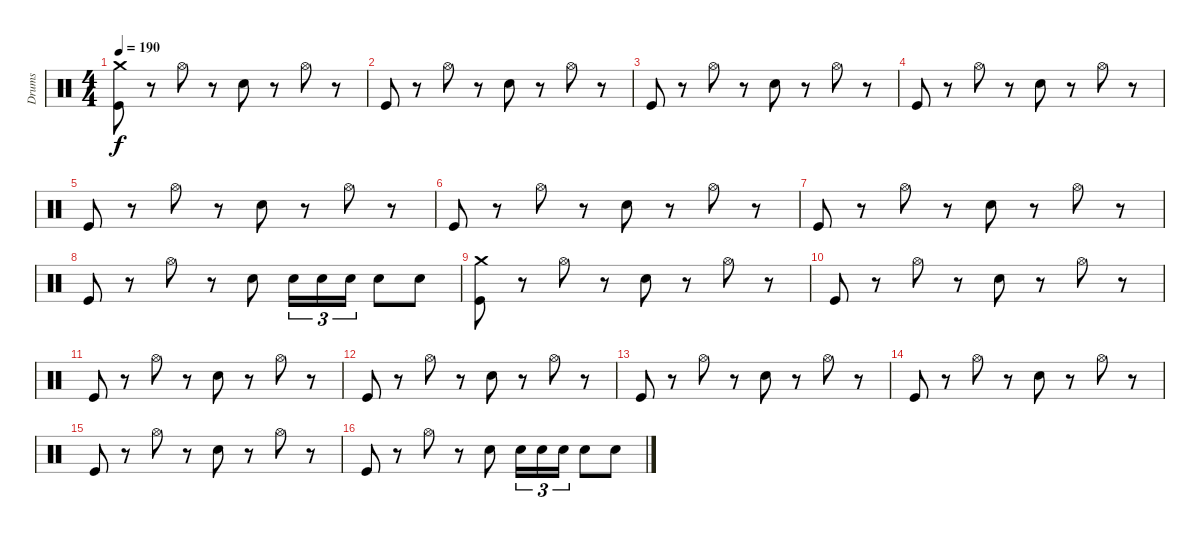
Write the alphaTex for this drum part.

\track ("Drums" "Drums") {instrument percussion}
\staff {score}
\articulation defaults
\ts (4 4)
\tempo 190
\clef neutral
\ks c
("Crash medium (hit)" "Kick (hit)").8{dy f} r.8 "Hi-Hat (open)".8 r.8 "Electric Snare (hit)".8 r.8 "Hi-Hat (open)".8 r.8 |
"Kick (hit)".8 r.8 "Hi-Hat (open)".8 r.8 "Electric Snare (hit)".8 r.8 "Hi-Hat (open)".8 r.8 |
"Kick (hit)".8 r.8 "Hi-Hat (open)".8 r.8 "Electric Snare (hit)".8 r.8 "Hi-Hat (open)".8 r.8 |
"Kick (hit)".8 r.8 "Hi-Hat (open)".8 r.8 "Electric Snare (hit)".8 r.8 "Hi-Hat (open)".8 r.8 |
"Kick (hit)".8 r.8 "Hi-Hat (open)".8 r.8 "Electric Snare (hit)".8 r.8 "Hi-Hat (open)".8 r.8 |
"Kick (hit)".8 r.8 "Hi-Hat (open)".8 r.8 "Electric Snare (hit)".8 r.8 "Hi-Hat (open)".8 r.8 |
"Kick (hit)".8 r.8 "Hi-Hat (open)".8 r.8 "Electric Snare (hit)".8 r.8 "Hi-Hat (open)".8 r.8 |
"Kick (hit)".8 r.8 "Hi-Hat (open)".8 r.8 "Electric Snare (hit)".8 "Electric Snare (hit)".16{tu (3 2)} "Electric Snare (hit)".16{tu (3 2)} "Electric Snare (hit)".16{tu (3 2)} "Electric Snare (hit)".8 "Electric Snare (hit)".8 |
("Crash medium (hit)" "Kick (hit)").8 r.8 "Hi-Hat (open)".8 r.8 "Electric Snare (hit)".8 r.8 "Hi-Hat (open)".8 r.8 |
"Kick (hit)".8 r.8 "Hi-Hat (open)".8 r.8 "Electric Snare (hit)".8 r.8 "Hi-Hat (open)".8 r.8 |
"Kick (hit)".8 r.8 "Hi-Hat (open)".8 r.8 "Electric Snare (hit)".8 r.8 "Hi-Hat (open)".8 r.8 |
"Kick (hit)".8 r.8 "Hi-Hat (open)".8 r.8 "Electric Snare (hit)".8 r.8 "Hi-Hat (open)".8 r.8 |
"Kick (hit)".8 r.8 "Hi-Hat (open)".8 r.8 "Electric Snare (hit)".8 r.8 "Hi-Hat (open)".8 r.8 |
"Kick (hit)".8 r.8 "Hi-Hat (open)".8 r.8 "Electric Snare (hit)".8 r.8 "Hi-Hat (open)".8 r.8 |
"Kick (hit)".8 r.8 "Hi-Hat (open)".8 r.8 "Electric Snare (hit)".8 r.8 "Hi-Hat (open)".8 r.8 |
"Kick (hit)".8 r.8 "Hi-Hat (open)".8 r.8 "Electric Snare (hit)".8 "Electric Snare (hit)".16{tu (3 2)} "Electric Snare (hit)".16{tu (3 2)} "Electric Snare (hit)".16{tu (3 2)} "Electric Snare (hit)".8 "Electric Snare (hit)".8
